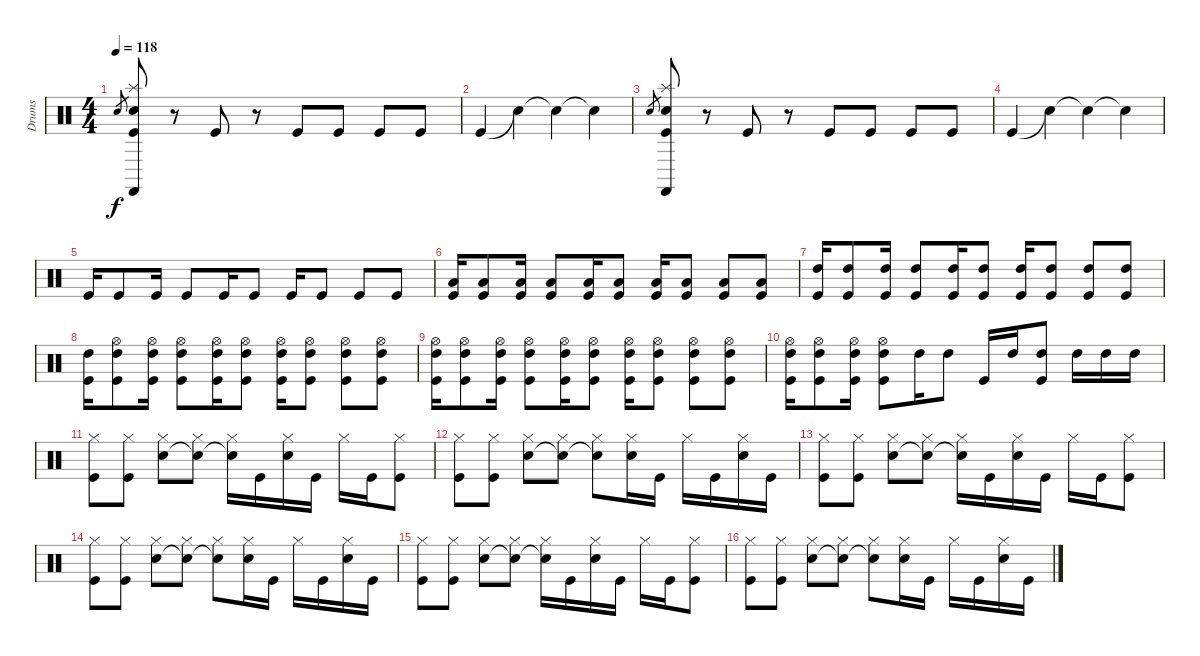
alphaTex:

\track ("Drums" "Drums") {instrument percussion}
\staff {score}
\articulation defaults
\ts (4 4)
\tempo 118
\clef neutral
\ks c "Snare (hit) 2".8{gr dy f}
("Splash (hit)" "Castanets (hit)" "Snare (hit) 2" "Kick (hit)").8 r.8 "Kick (hit)".8 r.8 "Kick (hit)".8 "Kick (hit)".8 "Kick (hit)".8 "Kick (hit)".8 |
"Kick (hit)".4 "Snare (hit)"{t}.4 "Snare (hit)"{t}.4 "Snare (hit)"{t}.4 |
"Snare (hit) 2".8{gr} ("Splash (hit)" "Castanets (hit)" "Snare (hit) 2" "Kick (hit)").8 r.8 "Kick (hit)".8 r.8 "Kick (hit)".8 "Kick (hit)".8 "Kick (hit)".8 "Kick (hit)".8 |
"Kick (hit)".4 "Snare (hit)"{t}.4 "Snare (hit)"{t}.4 "Snare (hit)"{t}.4 |
"Kick (hit)".16 "Kick (hit)".8 "Kick (hit)".16 "Kick (hit)".8 "Kick (hit)".16 "Kick (hit)".8 "Kick (hit)".16 "Kick (hit)".8 "Kick (hit)".8 "Kick (hit)".8 |
("Low Tom (hit)" "Kick (hit)").16 ("Low Tom (hit)" "Kick (hit)").8 ("Low Tom (hit)" "Kick (hit)").16 ("Low Tom (hit)" "Kick (hit)").8 ("Low Tom (hit)" "Kick (hit)").16 ("Low Tom (hit)" "Kick (hit)").8 ("Low Tom (hit)" "Kick (hit)").16 ("Low Tom (hit)" "Kick (hit)").8 ("Low Tom (hit)" "Kick (hit)").8 ("Low Tom (hit)" "Kick (hit)").8 |
("High Tom (hit)" "Kick (hit)").16 ("High Tom (hit)" "Kick (hit)").8 ("High Tom (hit)" "Kick (hit)").16 ("High Tom (hit)" "Kick (hit)").8 ("High Tom (hit)" "Kick (hit)").16 ("High Tom (hit)" "Kick (hit)").8 ("High Tom (hit)" "Kick (hit)").16 ("High Tom (hit)" "Kick (hit)").8 ("High Tom (hit)" "Kick (hit)").8 ("High Tom (hit)" "Kick (hit)").8 |
("High Tom (hit)" "Kick (hit)").16 ("Hi-Hat (open)" "High Tom (hit)" "Kick (hit)").8 ("Hi-Hat (open)" "High Tom (hit)" "Kick (hit)").16 ("Hi-Hat (open)" "High Tom (hit)" "Kick (hit)").8 ("Hi-Hat (open)" "High Tom (hit)" "Kick (hit)").16 ("Hi-Hat (open)" "High Tom (hit)" "Kick (hit)").8 ("Hi-Hat (open)" "High Tom (hit)" "Kick (hit)").16 ("Hi-Hat (open)" "High Tom (hit)" "Kick (hit)").8 ("Hi-Hat (open)" "High Tom (hit)" "Kick (hit)").8 ("Hi-Hat (open)" "High Tom (hit)" "Kick (hit)").8 |
("Hi-Hat (open)" "High Tom (hit)" "Kick (hit)").16 ("Hi-Hat (open)" "High Tom (hit)" "Kick (hit)").8 ("Hi-Hat (open)" "High Tom (hit)" "Kick (hit)").16 ("Hi-Hat (open)" "High Tom (hit)" "Kick (hit)").8 ("Hi-Hat (open)" "High Tom (hit)" "Kick (hit)").16 ("Hi-Hat (open)" "High Tom (hit)" "Kick (hit)").8 ("Hi-Hat (open)" "High Tom (hit)" "Kick (hit)").16 ("Hi-Hat (open)" "High Tom (hit)" "Kick (hit)").8 ("Hi-Hat (open)" "High Tom (hit)" "Kick (hit)").8 ("Hi-Hat (open)" "High Tom (hit)" "Kick (hit)").8 |
("Hi-Hat (open)" "High Tom (hit)" "Kick (hit)").16 ("Hi-Hat (open)" "High Tom (hit)" "Kick (hit)").8 ("Hi-Hat (open)" "High Tom (hit)" "Kick (hit)").16 ("Hi-Hat (open)" "High Tom (hit)" "Kick (hit)").8 "High Tom (hit)".16 "High Tom (hit)".8 "Kick (hit)".16 "High Tom (hit)".16 ("High Tom (hit)" "Kick (hit)").8 "High Tom (hit)".16 "High Tom (hit)".16 "High Tom (hit)".16 |
("Hi-Hat (closed)" "Kick (hit)").8 ("Hi-Hat (closed)" "Kick (hit)").8 ("Hi-Hat (closed)" "Snare (hit) 2").8 ("Hi-Hat (closed)" "Snare (hit)"{t}).8 ("Hi-Hat (closed)" "Snare (hit)"{t}).16 "Kick (hit)".16 ("Hi-Hat (closed)" "Snare (hit) 2").16 "Kick (hit)".16 "Hi-Hat (closed)".16 "Kick (hit)".16 ("Hi-Hat (closed)" "Kick (hit)").8 |
("Hi-Hat (closed)" "Kick (hit)").8 ("Hi-Hat (closed)" "Kick (hit)").8 ("Hi-Hat (closed)" "Snare (hit) 2").8 ("Hi-Hat (closed)" "Snare (hit)"{t}).8 ("Hi-Hat (closed)" "Snare (hit)"{t}).8 ("Hi-Hat (closed)" "Snare (hit) 2").16 "Kick (hit)".16 "Hi-Hat (closed)".16 "Kick (hit)".16 ("Hi-Hat (closed)" "Snare (hit) 2").16 "Kick (hit)".16 |
("Hi-Hat (closed)" "Kick (hit)").8 ("Hi-Hat (closed)" "Kick (hit)").8 ("Hi-Hat (closed)" "Snare (hit) 2").8 ("Hi-Hat (closed)" "Snare (hit)"{t}).8 ("Hi-Hat (closed)" "Snare (hit)"{t}).16 "Kick (hit)".16 ("Hi-Hat (closed)" "Snare (hit) 2").16 "Kick (hit)".16 "Hi-Hat (closed)".16 "Kick (hit)".16 ("Hi-Hat (closed)" "Kick (hit)").8 |
("Hi-Hat (closed)" "Kick (hit)").8 ("Hi-Hat (closed)" "Kick (hit)").8 ("Hi-Hat (closed)" "Snare (hit) 2").8 ("Hi-Hat (closed)" "Snare (hit)"{t}).8 ("Hi-Hat (closed)" "Snare (hit)"{t}).8 ("Hi-Hat (closed)" "Snare (hit) 2").16 "Kick (hit)".16 "Hi-Hat (closed)".16 "Kick (hit)".16 ("Hi-Hat (closed)" "Snare (hit) 2").16 "Kick (hit)".16 |
("Hi-Hat (closed)" "Kick (hit)").8 ("Hi-Hat (closed)" "Kick (hit)").8 ("Hi-Hat (closed)" "Snare (hit) 2").8 ("Hi-Hat (closed)" "Snare (hit)"{t}).8 ("Hi-Hat (closed)" "Snare (hit)"{t}).16 "Kick (hit)".16 ("Hi-Hat (closed)" "Snare (hit) 2").16 "Kick (hit)".16 "Hi-Hat (closed)".16 "Kick (hit)".16 ("Hi-Hat (closed)" "Kick (hit)").8 |
("Hi-Hat (closed)" "Kick (hit)").8 ("Hi-Hat (closed)" "Kick (hit)").8 ("Hi-Hat (closed)" "Snare (hit) 2").8 ("Hi-Hat (closed)" "Snare (hit)"{t}).8 ("Hi-Hat (closed)" "Snare (hit)"{t}).8 ("Hi-Hat (closed)" "Snare (hit) 2").16 "Kick (hit)".16 "Hi-Hat (closed)".16 "Kick (hit)".16 ("Hi-Hat (closed)" "Snare (hit) 2").16 "Kick (hit)".16
